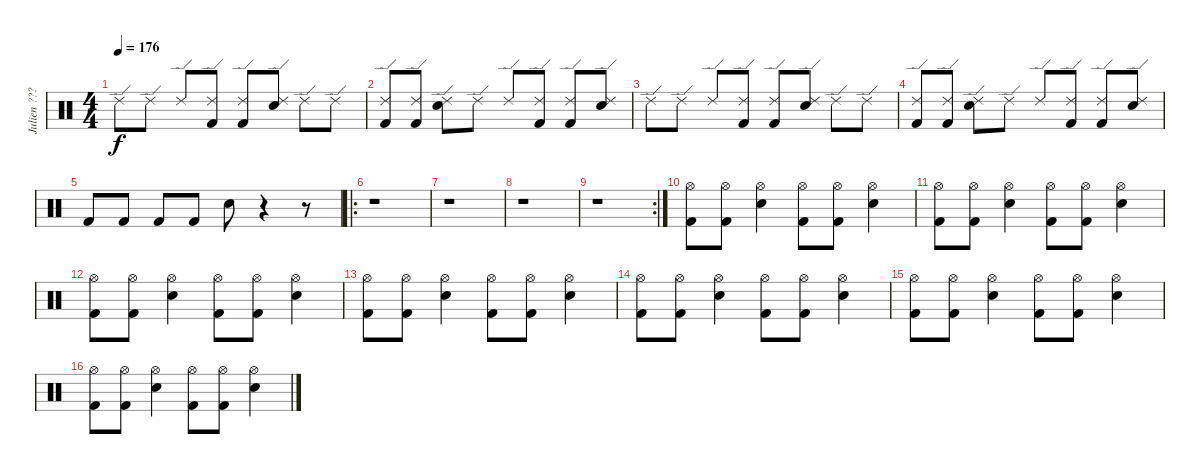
\track ("Julien ??? (Drum)" "Julien ???") {instrument percussion}
\staff {score}
\articulation defaults
\ts (4 4)
\tempo 176
\clef neutral
\ks c "Ride (edge) 2".8{dy f} "Ride (edge) 2".8 "Ride (edge) 2".8
("Kick (hit) 2" "Ride (edge) 2").8 ("Kick (hit) 2" "Ride (edge) 2").8 ("Electric Snare (hit)" "Ride (edge) 2").8 "Ride (edge) 2".8 "Ride (edge) 2".8 |
("Kick (hit) 2" "Ride (edge) 2").8 ("Kick (hit) 2" "Ride (edge) 2").8 ("Electric Snare (hit)" "Ride (edge) 2").8 "Ride (edge) 2".8 "Ride (edge) 2".8 ("Kick (hit) 2" "Ride (edge) 2").8 ("Kick (hit) 2" "Ride (edge) 2").8 ("Electric Snare (hit)" "Ride (edge) 2").8 |
"Ride (edge) 2".8 "Ride (edge) 2".8 "Ride (edge) 2".8 ("Kick (hit) 2" "Ride (edge) 2").8 ("Kick (hit) 2" "Ride (edge) 2").8 ("Electric Snare (hit)" "Ride (edge) 2").8 "Ride (edge) 2".8 "Ride (edge) 2".8 |
("Kick (hit) 2" "Ride (edge) 2").8 ("Kick (hit) 2" "Ride (edge) 2").8 ("Electric Snare (hit)" "Ride (edge) 2").8 "Ride (edge) 2".8 "Ride (edge) 2".8 ("Kick (hit) 2" "Ride (edge) 2").8 ("Kick (hit) 2" "Ride (edge) 2").8 ("Electric Snare (hit)" "Ride (edge) 2").8 |
"Kick (hit) 2".8 "Kick (hit) 2".8 "Kick (hit) 2".8 "Kick (hit) 2".8 "Electric Snare (hit)".8 r.4 r.8 |
\ro
r.1 |
r.1 |
r.1 |
\rc 2
r.1 |
("Hi-Hat (open)" "Kick (hit) 2").8 ("Hi-Hat (open)" "Kick (hit) 2").8 ("Hi-Hat (open)" "Electric Snare (hit)").4 ("Hi-Hat (open)" "Kick (hit) 2").8 ("Hi-Hat (open)" "Kick (hit) 2").8 ("Hi-Hat (open)" "Electric Snare (hit)").4 |
("Hi-Hat (open)" "Kick (hit) 2").8 ("Hi-Hat (open)" "Kick (hit) 2").8 ("Hi-Hat (open)" "Electric Snare (hit)").4 ("Hi-Hat (open)" "Kick (hit) 2").8 ("Hi-Hat (open)" "Kick (hit) 2").8 ("Hi-Hat (open)" "Electric Snare (hit)").4 |
("Hi-Hat (open)" "Kick (hit) 2").8 ("Hi-Hat (open)" "Kick (hit) 2").8 ("Hi-Hat (open)" "Electric Snare (hit)").4 ("Hi-Hat (open)" "Kick (hit) 2").8 ("Hi-Hat (open)" "Kick (hit) 2").8 ("Hi-Hat (open)" "Electric Snare (hit)").4 |
("Hi-Hat (open)" "Kick (hit) 2").8 ("Hi-Hat (open)" "Kick (hit) 2").8 ("Hi-Hat (open)" "Electric Snare (hit)").4 ("Hi-Hat (open)" "Kick (hit) 2").8 ("Hi-Hat (open)" "Kick (hit) 2").8 ("Hi-Hat (open)" "Electric Snare (hit)").4 |
("Hi-Hat (open)" "Kick (hit) 2").8 ("Hi-Hat (open)" "Kick (hit) 2").8 ("Hi-Hat (open)" "Electric Snare (hit)").4 ("Hi-Hat (open)" "Kick (hit) 2").8 ("Hi-Hat (open)" "Kick (hit) 2").8 ("Hi-Hat (open)" "Electric Snare (hit)").4 |
("Hi-Hat (open)" "Kick (hit) 2").8 ("Hi-Hat (open)" "Kick (hit) 2").8 ("Hi-Hat (open)" "Electric Snare (hit)").4 ("Hi-Hat (open)" "Kick (hit) 2").8 ("Hi-Hat (open)" "Kick (hit) 2").8 ("Hi-Hat (open)" "Electric Snare (hit)").4 |
("Hi-Hat (open)" "Kick (hit) 2").8 ("Hi-Hat (open)" "Kick (hit) 2").8 ("Hi-Hat (open)" "Electric Snare (hit)").4 ("Hi-Hat (open)" "Kick (hit) 2").8 ("Hi-Hat (open)" "Kick (hit) 2").8 ("Hi-Hat (open)" "Electric Snare (hit)").4
